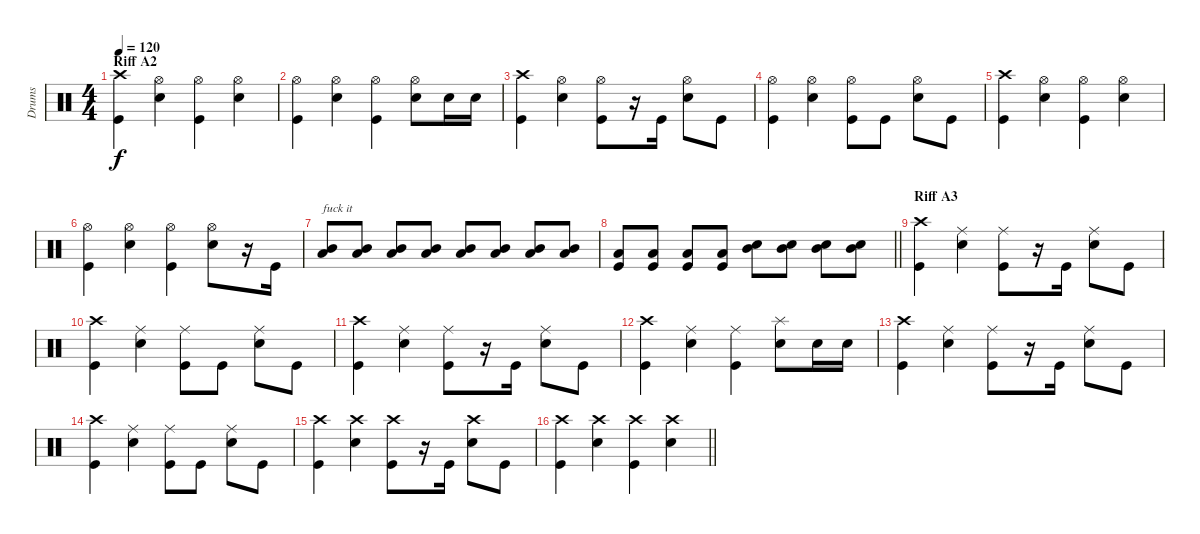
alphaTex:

\track ("Drums" "Drums") {instrument percussion}
\staff {score}
\articulation defaults
\ts (4 4)
\section ("" "Riff A2")
\tempo 120
\clef neutral
\ks c
("Crash high (hit)" "Kick (hit)").4{dy f} ("Hi-Hat (open)" "Snare (hit) 2").4 ("Hi-Hat (open)" "Kick (hit)").4 ("Hi-Hat (open)" "Snare (hit) 2").4 |
("Hi-Hat (open)" "Kick (hit)").4 ("Hi-Hat (open)" "Snare (hit) 2").4 ("Hi-Hat (open)" "Kick (hit)").4 ("Hi-Hat (open)" "Snare (hit) 2").8 "Snare (hit) 2".16 "Snare (hit) 2".16 |
("Crash high (hit)" "Kick (hit)").4 ("Hi-Hat (open)" "Snare (hit) 2").4 ("Hi-Hat (open)" "Kick (hit)").8 r.16 "Kick (hit)".16 ("Hi-Hat (open)" "Snare (hit) 2").8 "Kick (hit)".8 |
("Hi-Hat (open)" "Kick (hit)").4 ("Hi-Hat (open)" "Snare (hit) 2").4 ("Hi-Hat (open)" "Kick (hit)").8 "Kick (hit)".8 ("Hi-Hat (open)" "Snare (hit) 2").8 "Kick (hit)".8 |
("Crash high (hit)" "Kick (hit)").4 ("Hi-Hat (open)" "Snare (hit) 2").4 ("Hi-Hat (open)" "Kick (hit)").4 ("Hi-Hat (open)" "Snare (hit) 2").4 |
("Hi-Hat (open)" "Kick (hit)").4 ("Hi-Hat (open)" "Snare (hit) 2").4 ("Hi-Hat (open)" "Kick (hit)").4 ("Hi-Hat (open)" "Snare (hit) 2").8 r.16 "Kick (hit)".16 |
("Low Tom (hit)" "Mid Tom (hit)").8{txt "fuck it"} ("Low Tom (hit)" "Mid Tom (hit)").8 ("Low Tom (hit)" "Mid Tom (hit)").8 ("Low Tom (hit)" "Mid Tom (hit)").8 ("Low Tom (hit)" "Mid Tom (hit)").8 ("Low Tom (hit)" "Mid Tom (hit)").8 ("Low Tom (hit)" "Mid Tom (hit)").8 ("Low Tom (hit)" "Mid Tom (hit)").8 |
\barLineRight lightlight
("Low Tom (hit)" "Kick (hit)").8 ("Low Tom (hit)" "Kick (hit)").8 ("Low Tom (hit)" "Kick (hit)").8 ("Low Tom (hit)" "Kick (hit)").8 ("Snare (hit) 2" "Mid Tom (hit)").8 ("Snare (hit) 2" "Mid Tom (hit)").8 ("Snare (hit) 2" "Mid Tom (hit)").8 ("Snare (hit) 2" "Mid Tom (hit)").8 |
\section ("" "Riff A3")
("Crash high (hit)" "Kick (hit)").4 ("Ride (middle)" "Snare (hit) 2").4 ("Ride (middle)" "Kick (hit)").8 r.16 "Kick (hit)".16 ("Ride (middle)" "Snare (hit) 2").8 "Kick (hit)".8 |
("Crash high (hit)" "Kick (hit)").4 ("Ride (middle)" "Snare (hit) 2").4 ("Ride (middle)" "Kick (hit)").8 "Kick (hit)".8 ("Ride (middle)" "Snare (hit) 2").8 "Kick (hit)".8 |
("Crash high (hit)" "Kick (hit)").4 ("Ride (middle)" "Snare (hit) 2").4 ("Ride (middle)" "Kick (hit)").8 r.16 "Kick (hit)".16 ("Ride (middle)" "Snare (hit) 2").8 "Kick (hit)".8 |
("Crash high (hit)" "Kick (hit)").4 ("Ride (middle)" "Snare (hit) 2").4 ("Ride (middle)" "Kick (hit)").4 ("Splash (hit)" "Snare (hit) 2").8 "Snare (hit) 2".16 "Snare (hit) 2".16 |
("Crash high (hit)" "Kick (hit)").4 ("Ride (middle)" "Snare (hit) 2").4 ("Ride (middle)" "Kick (hit)").8 r.16 "Kick (hit)".16 ("Ride (middle)" "Snare (hit) 2").8 "Kick (hit)".8 |
("Crash high (hit)" "Kick (hit)").4 ("Ride (middle)" "Snare (hit) 2").4 ("Ride (middle)" "Kick (hit)").8 "Kick (hit)".8 ("Ride (middle)" "Snare (hit) 2").8 "Kick (hit)".8 |
("Crash high (hit)" "Kick (hit)").4 ("Crash high (hit)" "Snare (hit) 2").4 ("Crash high (hit)" "Kick (hit)").8 r.16 "Kick (hit)".16 ("Crash high (hit)" "Snare (hit) 2").8 "Kick (hit)".8 |
\barLineRight lightlight
("Crash high (hit)" "Kick (hit)").4 ("Crash high (hit)" "Snare (hit) 2").4 ("Crash high (hit)" "Kick (hit)").4 ("Crash high (hit)" "Snare (hit) 2").4
